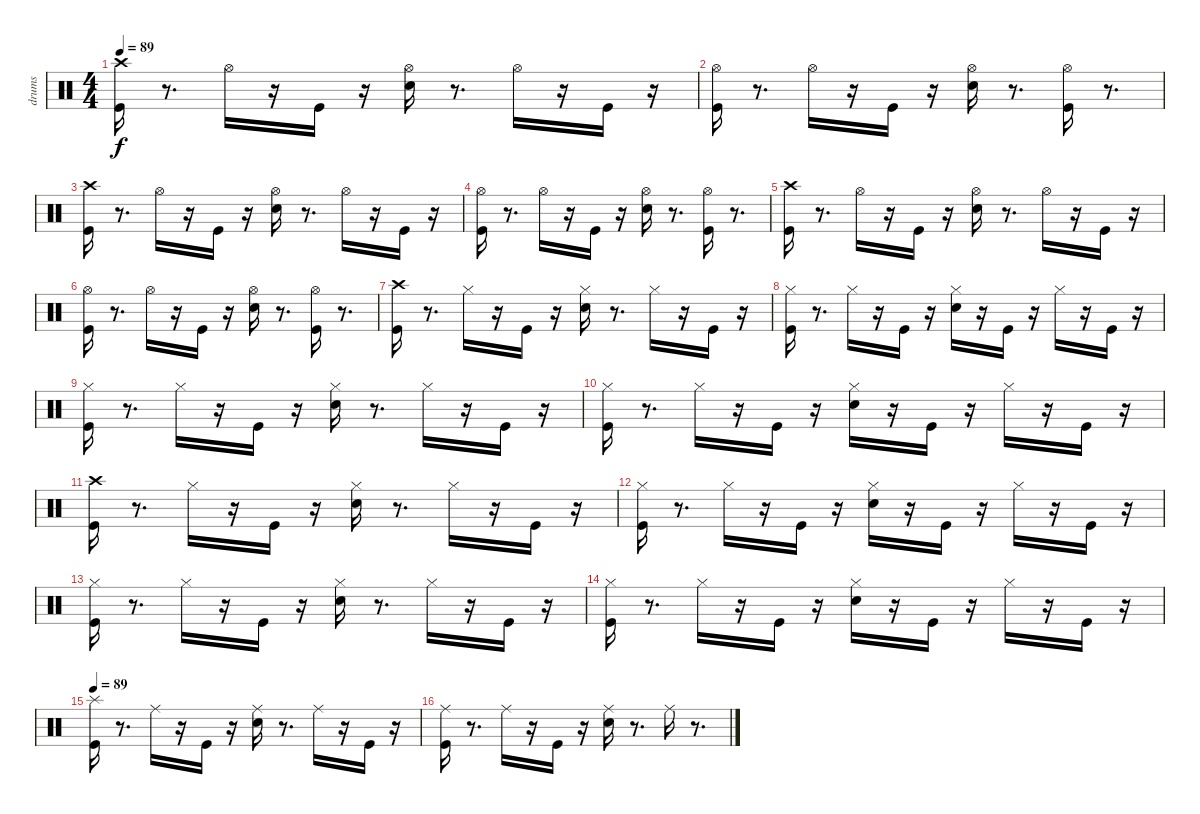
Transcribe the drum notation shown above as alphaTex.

\track ("drums" "drums") {instrument percussion}
\staff {score}
\articulation defaults
\ts (4 4)
\tempo 89
\clef neutral
\ks c
("Crash high (hit)" "Kick (hit)").16{dy f} r.8{d} "Hi-Hat (open)".16 r.16 "Kick (hit)".16 r.16 ("Hi-Hat (open)" "Electric Snare (hit)").16 r.8{d} "Hi-Hat (open)".16 r.16 "Kick (hit)".16 r.16 |
("Hi-Hat (open)" "Kick (hit)").16 r.8{d} "Hi-Hat (open)".16 r.16 "Kick (hit)".16 r.16 ("Electric Snare (hit)" "Hi-Hat (open)").16 r.8{d} ("Kick (hit)" "Hi-Hat (open)").16 r.8{d} |
("Crash high (hit)" "Kick (hit)").16 r.8{d} "Hi-Hat (open)".16 r.16 "Kick (hit)".16 r.16 ("Hi-Hat (open)" "Electric Snare (hit)").16 r.8{d} "Hi-Hat (open)".16 r.16 "Kick (hit)".16 r.16 |
("Hi-Hat (open)" "Kick (hit)").16 r.8{d} "Hi-Hat (open)".16 r.16 "Kick (hit)".16 r.16 ("Electric Snare (hit)" "Hi-Hat (open)").16 r.8{d} ("Kick (hit)" "Hi-Hat (open)").16 r.8{d} |
("Crash high (hit)" "Kick (hit)").16 r.8{d} "Hi-Hat (open)".16 r.16 "Kick (hit)".16 r.16 ("Hi-Hat (open)" "Electric Snare (hit)").16 r.8{d} "Hi-Hat (open)".16 r.16 "Kick (hit)".16 r.16 |
("Hi-Hat (open)" "Kick (hit)").16 r.8{d} "Hi-Hat (open)".16 r.16 "Kick (hit)".16 r.16 ("Electric Snare (hit)" "Hi-Hat (open)").16 r.8{d} ("Kick (hit)" "Hi-Hat (open)").16 r.8{d} |
("Crash high (hit)" "Kick (hit)").16 r.8{d} "Hi-Hat (closed)".16 r.16 "Kick (hit)".16 r.16 ("Hi-Hat (closed)" "Electric Snare (hit)").16 r.8{d} "Hi-Hat (closed)".16 r.16 "Kick (hit)".16 r.16 |
("Hi-Hat (closed)" "Kick (hit)").16 r.8{d} "Hi-Hat (closed)".16 r.16 "Kick (hit)".16 r.16 ("Hi-Hat (closed)" "Electric Snare (hit)").16 r.16 "Kick (hit)".16 r.16 "Hi-Hat (closed)".16 r.16 "Kick (hit)".16 r.16 |
("Hi-Hat (closed)" "Kick (hit)").16 r.8{d} "Hi-Hat (closed)".16 r.16 "Kick (hit)".16 r.16 ("Hi-Hat (closed)" "Electric Snare (hit)").16 r.8{d} "Hi-Hat (closed)".16 r.16 "Kick (hit)".16 r.16 |
("Hi-Hat (closed)" "Kick (hit)").16 r.8{d} "Hi-Hat (closed)".16 r.16 "Kick (hit)".16 r.16 ("Hi-Hat (closed)" "Electric Snare (hit)").16 r.16 "Kick (hit)".16 r.16 "Hi-Hat (closed)".16 r.16 "Kick (hit)".16 r.16 |
("Crash high (hit)" "Kick (hit)").16 r.8{d} "Hi-Hat (closed)".16 r.16 "Kick (hit)".16 r.16 ("Hi-Hat (closed)" "Electric Snare (hit)").16 r.8{d} "Hi-Hat (closed)".16 r.16 "Kick (hit)".16 r.16 |
("Hi-Hat (closed)" "Kick (hit)").16 r.8{d} "Hi-Hat (closed)".16 r.16 "Kick (hit)".16 r.16 ("Hi-Hat (closed)" "Electric Snare (hit)").16 r.16 "Kick (hit)".16 r.16 "Hi-Hat (closed)".16 r.16 "Kick (hit)".16 r.16 |
("Hi-Hat (closed)" "Kick (hit)").16 r.8{d} "Hi-Hat (closed)".16 r.16 "Kick (hit)".16 r.16 ("Hi-Hat (closed)" "Electric Snare (hit)").16 r.8{d} "Hi-Hat (closed)".16 r.16 "Kick (hit)".16 r.16 |
("Hi-Hat (closed)" "Kick (hit)").16 r.8{d} "Hi-Hat (closed)".16 r.16 "Kick (hit)".16 r.16 ("Hi-Hat (closed)" "Electric Snare (hit)").16 r.16 "Kick (hit)".16 r.16 "Hi-Hat (closed)".16 r.16 "Kick (hit)".16 r.16 |
\tempo 89
("Splash (hit)" "Kick (hit)").16 r.8{d} "Ride (middle)".16 r.16 "Kick (hit)".16 r.16 ("Ride (middle)" "Electric Snare (hit)").16 r.8{d} "Ride (middle)".16 r.16 "Kick (hit)".16 r.16 |
("Ride (middle)" "Kick (hit)").16 r.8{d} "Ride (middle)".16 r.16 "Kick (hit)".16 r.16 ("Ride (middle)" "Electric Snare (hit)").16 r.8{d} "Ride (middle)".16 r.8{d}
